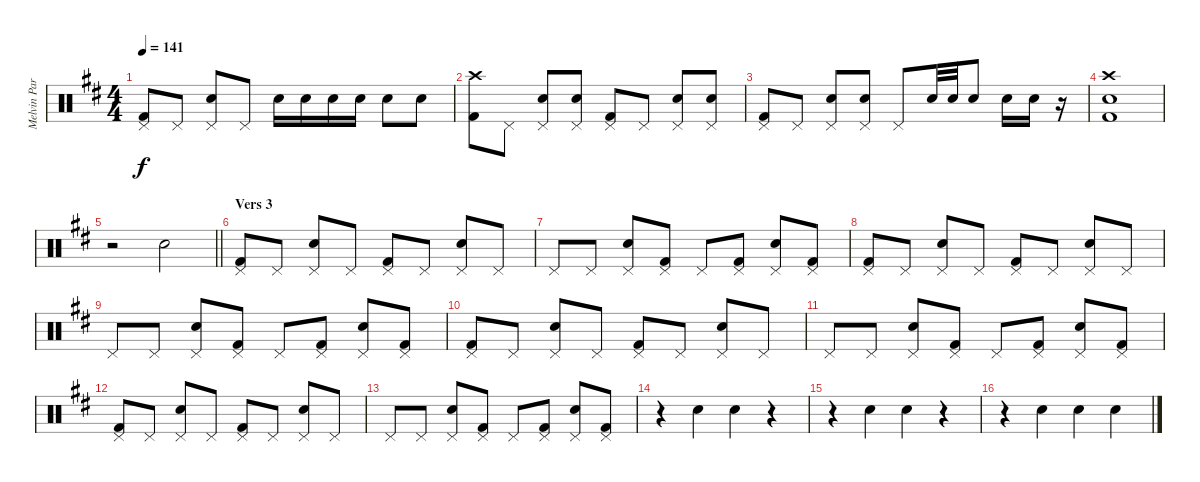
\track ("Melvin Parker - Drums " "Melvin Par") {instrument percussion}
\staff {score}
\articulation defaults
\ts (4 4)
\tempo 141
\clef neutral
\ks d
("Pedal Hi-Hat (hit)" "Kick (hit) 2").8{dy f} "Pedal Hi-Hat (hit)".8 ("Pedal Hi-Hat (hit)" "Electric Snare (hit)").8 "Pedal Hi-Hat (hit)".8 "Electric Snare (hit)".16 "Electric Snare (hit)".16 "Electric Snare (hit)".16 "Electric Snare (hit)".16 "Electric Snare (hit)".8 "Electric Snare (hit)".8 |
("Crash high (hit)" "Kick (hit) 2").8 "Pedal Hi-Hat (hit)".8 ("Pedal Hi-Hat (hit)" "Electric Snare (hit)").8 ("Pedal Hi-Hat (hit)" "Electric Snare (hit)").8 ("Pedal Hi-Hat (hit)" "Kick (hit) 2").8 "Pedal Hi-Hat (hit)".8 ("Pedal Hi-Hat (hit)" "Electric Snare (hit)").8 ("Pedal Hi-Hat (hit)" "Electric Snare (hit)").8 |
("Pedal Hi-Hat (hit)" "Kick (hit) 2").8 "Pedal Hi-Hat (hit)".8 ("Pedal Hi-Hat (hit)" "Electric Snare (hit)").8 ("Pedal Hi-Hat (hit)" "Electric Snare (hit)").8 "Pedal Hi-Hat (hit)".8 "Electric Snare (hit)".32 "Electric Snare (hit)".32 "Electric Snare (hit)".8 "Electric Snare (hit)".16 "Electric Snare (hit)".16 r.16 |
("Crash high (hit)" "Electric Snare (hit)" "Kick (hit) 2").1 |
\barLineRight lightlight
r.2 "Electric Snare (hit)".2 |
\section ("" "Vers 3")
("Pedal Hi-Hat (hit)" "Kick (hit) 2").8 "Pedal Hi-Hat (hit)".8 ("Pedal Hi-Hat (hit)" "Electric Snare (hit)").8 "Pedal Hi-Hat (hit)".8 ("Pedal Hi-Hat (hit)" "Kick (hit) 2").8 "Pedal Hi-Hat (hit)".8 ("Pedal Hi-Hat (hit)" "Electric Snare (hit)").8 "Pedal Hi-Hat (hit)".8 |
"Pedal Hi-Hat (hit)".8 "Pedal Hi-Hat (hit)".8 ("Pedal Hi-Hat (hit)" "Electric Snare (hit)").8 ("Pedal Hi-Hat (hit)" "Kick (hit) 2").8 "Pedal Hi-Hat (hit)".8 ("Pedal Hi-Hat (hit)" "Kick (hit) 2").8 ("Pedal Hi-Hat (hit)" "Electric Snare (hit)").8 ("Pedal Hi-Hat (hit)" "Kick (hit) 2").8 |
("Pedal Hi-Hat (hit)" "Kick (hit) 2").8 "Pedal Hi-Hat (hit)".8 ("Pedal Hi-Hat (hit)" "Electric Snare (hit)").8 "Pedal Hi-Hat (hit)".8 ("Pedal Hi-Hat (hit)" "Kick (hit) 2").8 "Pedal Hi-Hat (hit)".8 ("Pedal Hi-Hat (hit)" "Electric Snare (hit)").8 "Pedal Hi-Hat (hit)".8 |
"Pedal Hi-Hat (hit)".8 "Pedal Hi-Hat (hit)".8 ("Pedal Hi-Hat (hit)" "Electric Snare (hit)").8 ("Pedal Hi-Hat (hit)" "Kick (hit) 2").8 "Pedal Hi-Hat (hit)".8 ("Pedal Hi-Hat (hit)" "Kick (hit) 2").8 ("Pedal Hi-Hat (hit)" "Electric Snare (hit)").8 ("Pedal Hi-Hat (hit)" "Kick (hit) 2").8 |
("Pedal Hi-Hat (hit)" "Kick (hit) 2").8 "Pedal Hi-Hat (hit)".8 ("Pedal Hi-Hat (hit)" "Electric Snare (hit)").8 "Pedal Hi-Hat (hit)".8 ("Pedal Hi-Hat (hit)" "Kick (hit) 2").8 "Pedal Hi-Hat (hit)".8 ("Pedal Hi-Hat (hit)" "Electric Snare (hit)").8 "Pedal Hi-Hat (hit)".8 |
"Pedal Hi-Hat (hit)".8 "Pedal Hi-Hat (hit)".8 ("Pedal Hi-Hat (hit)" "Electric Snare (hit)").8 ("Pedal Hi-Hat (hit)" "Kick (hit) 2").8 "Pedal Hi-Hat (hit)".8 ("Pedal Hi-Hat (hit)" "Kick (hit) 2").8 ("Pedal Hi-Hat (hit)" "Electric Snare (hit)").8 ("Pedal Hi-Hat (hit)" "Kick (hit) 2").8 |
("Pedal Hi-Hat (hit)" "Kick (hit) 2").8 "Pedal Hi-Hat (hit)".8 ("Pedal Hi-Hat (hit)" "Electric Snare (hit)").8 "Pedal Hi-Hat (hit)".8 ("Pedal Hi-Hat (hit)" "Kick (hit) 2").8 "Pedal Hi-Hat (hit)".8 ("Pedal Hi-Hat (hit)" "Electric Snare (hit)").8 "Pedal Hi-Hat (hit)".8 |
"Pedal Hi-Hat (hit)".8 "Pedal Hi-Hat (hit)".8 ("Pedal Hi-Hat (hit)" "Electric Snare (hit)").8 ("Pedal Hi-Hat (hit)" "Kick (hit) 2").8 "Pedal Hi-Hat (hit)".8 ("Pedal Hi-Hat (hit)" "Kick (hit) 2").8 ("Pedal Hi-Hat (hit)" "Electric Snare (hit)").8 ("Pedal Hi-Hat (hit)" "Kick (hit) 2").8 |
r.4 "Electric Snare (hit)".4 "Electric Snare (hit)".4 r.4 |
r.4 "Electric Snare (hit)".4 "Electric Snare (hit)".4 r.4 |
r.4 "Electric Snare (hit)".4 "Electric Snare (hit)".4 "Electric Snare (hit)".4
